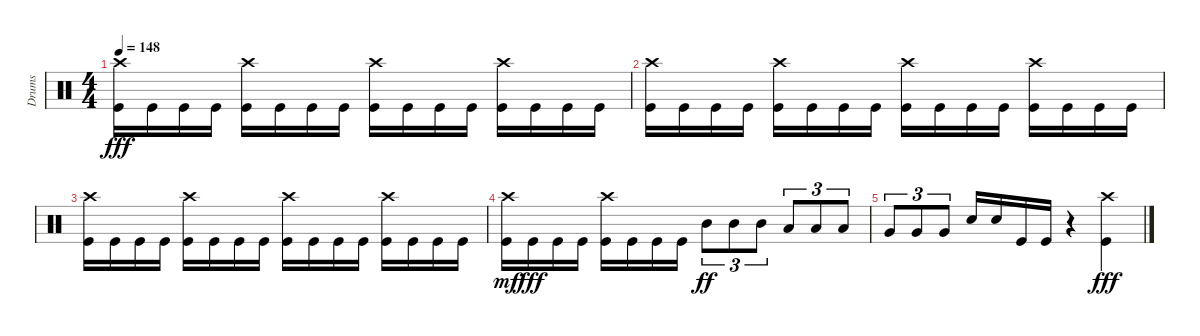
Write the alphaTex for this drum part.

\track ("Drums" "Drums") {instrument percussion}
\staff {score}
\articulation defaults
\ts (4 4)
\tempo 148
\clef neutral
\ks c
("Kick (hit)" "Crash high (hit)").16{dy fff} "Kick (hit)".16 "Kick (hit)".16 "Kick (hit)".16 ("Kick (hit)" "Crash high (hit)").16 "Kick (hit)".16 "Kick (hit)".16 "Kick (hit)".16 ("Kick (hit)" "Crash high (hit)").16 "Kick (hit)".16 "Kick (hit)".16 "Kick (hit)".16 ("Kick (hit)" "Crash high (hit)").16 "Kick (hit)".16 "Kick (hit)".16 "Kick (hit)".16 |
("Kick (hit)" "Crash high (hit)").16 "Kick (hit)".16 "Kick (hit)".16 "Kick (hit)".16 ("Kick (hit)" "Crash high (hit)").16 "Kick (hit)".16 "Kick (hit)".16 "Kick (hit)".16 ("Crash high (hit)" "Kick (hit)").16 "Kick (hit)".16 "Kick (hit)".16 "Kick (hit)".16 ("Kick (hit)" "Crash high (hit)").16 "Kick (hit)".16 "Kick (hit)".16 "Kick (hit)".16 |
("Kick (hit)" "Crash high (hit)").16 "Kick (hit)".16 "Kick (hit)".16 "Kick (hit)".16 ("Kick (hit)" "Crash high (hit)").16 "Kick (hit)".16 "Kick (hit)".16 "Kick (hit)".16 ("Kick (hit)" "Crash high (hit)").16 "Kick (hit)".16 "Kick (hit)".16 "Kick (hit)".16 ("Kick (hit)" "Crash high (hit)").16 "Kick (hit)".16 "Kick (hit)".16 "Kick (hit)".16 |
("Kick (hit)" "Crash high (hit)").16{dy mf} "Kick (hit)".16{dy fff} "Kick (hit)".16 "Kick (hit)".16 ("Kick (hit)" "Crash high (hit)").16 "Kick (hit)".16 "Kick (hit)".16 "Kick (hit)".16 "Mid Tom (hit)".8{tu (3 2) dy ff} "Mid Tom (hit)".8{tu (3 2)} "Mid Tom (hit)".8{tu (3 2)} "Low Tom (hit)".8{tu (3 2)} "Low Tom (hit)".8{tu (3 2)} "Low Tom (hit)".8{tu (3 2)} |
"Very Low Tom (hit)".8{tu (3 2)} "Very Low Tom (hit)".8{tu (3 2)} "Very Low Tom (hit)".8{tu (3 2)} "Snare (hit) 2".16 "Snare (hit) 2".16 "Kick (hit)".16 "Kick (hit)".16 r.4 ("Kick (hit)" "Crash high (hit)").4{dy fff}
